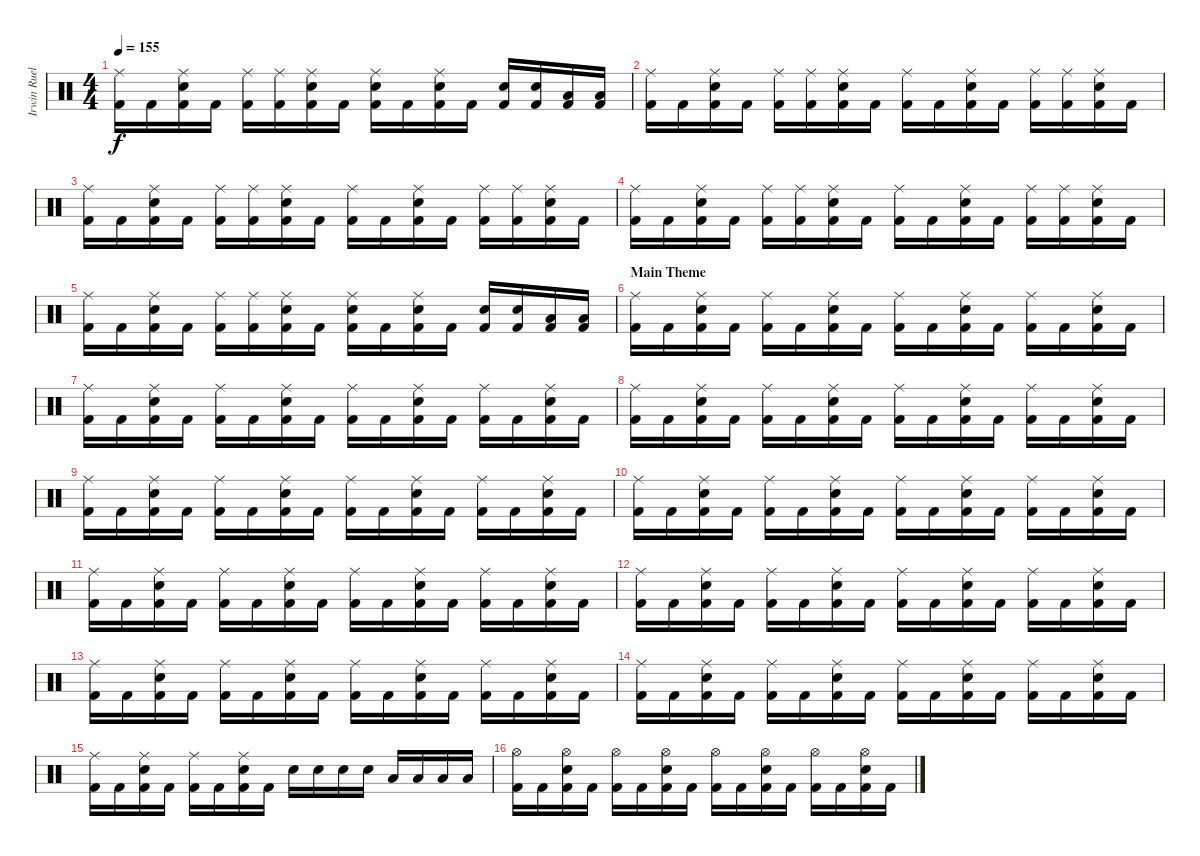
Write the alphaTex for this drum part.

\track ("Irwin Ruelas" "Irwin Ruel") {instrument percussion}
\staff {score}
\articulation defaults
\ts (4 4)
\tempo 155
\clef neutral
\ks c
("Ride (middle)" "Kick (hit) 2").16{dy f} "Kick (hit) 2".16 ("Ride (middle)" "Electric Snare (hit)" "Kick (hit) 2").16 "Kick (hit) 2".16 ("Ride (middle)" "Kick (hit) 2").16 ("Ride (middle)" "Kick (hit) 2").16 ("Ride (middle)" "Electric Snare (hit)" "Kick (hit) 2").16 "Kick (hit) 2".16 ("Ride (middle)" "Electric Snare (hit)" "Kick (hit) 2").16 "Kick (hit) 2".16 ("Ride (middle)" "Electric Snare (hit)" "Kick (hit) 2").16 "Kick (hit) 2".16 ("Electric Snare (hit)" "Kick (hit) 2").16 ("Electric Snare (hit)" "Kick (hit) 2").16 ("Low Tom (hit)" "Kick (hit) 2").16 ("Low Tom (hit)" "Kick (hit) 2").16 |
("Ride (middle)" "Kick (hit) 2").16 "Kick (hit) 2".16 ("Ride (middle)" "Electric Snare (hit)" "Kick (hit) 2").16 "Kick (hit) 2".16 ("Ride (middle)" "Kick (hit) 2").16 ("Ride (middle)" "Kick (hit) 2").16 ("Ride (middle)" "Electric Snare (hit)" "Kick (hit) 2").16 "Kick (hit) 2".16 ("Ride (middle)" "Kick (hit) 2").16 "Kick (hit) 2".16 ("Ride (middle)" "Electric Snare (hit)" "Kick (hit) 2").16 "Kick (hit) 2".16 ("Ride (middle)" "Kick (hit) 2").16 ("Ride (middle)" "Kick (hit) 2").16 ("Ride (middle)" "Electric Snare (hit)" "Kick (hit) 2").16 "Kick (hit) 2".16 |
("Ride (middle)" "Kick (hit) 2").16 "Kick (hit) 2".16 ("Ride (middle)" "Electric Snare (hit)" "Kick (hit) 2").16 "Kick (hit) 2".16 ("Ride (middle)" "Kick (hit) 2").16 ("Ride (middle)" "Kick (hit) 2").16 ("Ride (middle)" "Electric Snare (hit)" "Kick (hit) 2").16 "Kick (hit) 2".16 ("Ride (middle)" "Kick (hit) 2").16 "Kick (hit) 2".16 ("Ride (middle)" "Electric Snare (hit)" "Kick (hit) 2").16 "Kick (hit) 2".16 ("Ride (middle)" "Kick (hit) 2").16 ("Ride (middle)" "Kick (hit) 2").16 ("Ride (middle)" "Electric Snare (hit)" "Kick (hit) 2").16 "Kick (hit) 2".16 |
("Ride (middle)" "Kick (hit) 2").16 "Kick (hit) 2".16 ("Ride (middle)" "Electric Snare (hit)" "Kick (hit) 2").16 "Kick (hit) 2".16 ("Ride (middle)" "Kick (hit) 2").16 ("Ride (middle)" "Kick (hit) 2").16 ("Ride (middle)" "Electric Snare (hit)" "Kick (hit) 2").16 "Kick (hit) 2".16 ("Ride (middle)" "Kick (hit) 2").16 "Kick (hit) 2".16 ("Ride (middle)" "Electric Snare (hit)" "Kick (hit) 2").16 "Kick (hit) 2".16 ("Ride (middle)" "Kick (hit) 2").16 ("Ride (middle)" "Kick (hit) 2").16 ("Ride (middle)" "Electric Snare (hit)" "Kick (hit) 2").16 "Kick (hit) 2".16 |
("Ride (middle)" "Kick (hit) 2").16 "Kick (hit) 2".16 ("Ride (middle)" "Electric Snare (hit)" "Kick (hit) 2").16 "Kick (hit) 2".16 ("Ride (middle)" "Kick (hit) 2").16 ("Ride (middle)" "Kick (hit) 2").16 ("Ride (middle)" "Electric Snare (hit)" "Kick (hit) 2").16 "Kick (hit) 2".16 ("Ride (middle)" "Electric Snare (hit)" "Kick (hit) 2").16 "Kick (hit) 2".16 ("Ride (middle)" "Electric Snare (hit)" "Kick (hit) 2").16 "Kick (hit) 2".16 ("Electric Snare (hit)" "Kick (hit) 2").16 ("Electric Snare (hit)" "Kick (hit) 2").16 ("Low Tom (hit)" "Kick (hit) 2").16 ("Low Tom (hit)" "Kick (hit) 2").16 |
\section ("" "Main Theme")
("Ride (middle)" "Kick (hit) 2").16 "Kick (hit) 2".16 ("Ride (middle)" "Electric Snare (hit)" "Kick (hit) 2").16 "Kick (hit) 2".16 ("Ride (middle)" "Kick (hit) 2").16 "Kick (hit) 2".16 ("Ride (middle)" "Electric Snare (hit)" "Kick (hit) 2").16 "Kick (hit) 2".16 ("Ride (middle)" "Kick (hit) 2").16 "Kick (hit) 2".16 ("Ride (middle)" "Electric Snare (hit)" "Kick (hit) 2").16 "Kick (hit) 2".16 ("Ride (middle)" "Kick (hit) 2").16 "Kick (hit) 2".16 ("Ride (middle)" "Electric Snare (hit)" "Kick (hit) 2").16 "Kick (hit) 2".16 |
("Ride (middle)" "Kick (hit) 2").16 "Kick (hit) 2".16 ("Ride (middle)" "Electric Snare (hit)" "Kick (hit) 2").16 "Kick (hit) 2".16 ("Ride (middle)" "Kick (hit) 2").16 "Kick (hit) 2".16 ("Ride (middle)" "Electric Snare (hit)" "Kick (hit) 2").16 "Kick (hit) 2".16 ("Ride (middle)" "Kick (hit) 2").16 "Kick (hit) 2".16 ("Ride (middle)" "Electric Snare (hit)" "Kick (hit) 2").16 "Kick (hit) 2".16 ("Ride (middle)" "Kick (hit) 2").16 "Kick (hit) 2".16 ("Ride (middle)" "Electric Snare (hit)" "Kick (hit) 2").16 "Kick (hit) 2".16 |
("Ride (middle)" "Kick (hit) 2").16 "Kick (hit) 2".16 ("Ride (middle)" "Electric Snare (hit)" "Kick (hit) 2").16 "Kick (hit) 2".16 ("Ride (middle)" "Kick (hit) 2").16 "Kick (hit) 2".16 ("Ride (middle)" "Electric Snare (hit)" "Kick (hit) 2").16 "Kick (hit) 2".16 ("Ride (middle)" "Kick (hit) 2").16 "Kick (hit) 2".16 ("Ride (middle)" "Electric Snare (hit)" "Kick (hit) 2").16 "Kick (hit) 2".16 ("Ride (middle)" "Kick (hit) 2").16 "Kick (hit) 2".16 ("Ride (middle)" "Electric Snare (hit)" "Kick (hit) 2").16 "Kick (hit) 2".16 |
("Ride (middle)" "Kick (hit) 2").16 "Kick (hit) 2".16 ("Ride (middle)" "Electric Snare (hit)" "Kick (hit) 2").16 "Kick (hit) 2".16 ("Ride (middle)" "Kick (hit) 2").16 "Kick (hit) 2".16 ("Ride (middle)" "Electric Snare (hit)" "Kick (hit) 2").16 "Kick (hit) 2".16 ("Ride (middle)" "Kick (hit) 2").16 "Kick (hit) 2".16 ("Ride (middle)" "Electric Snare (hit)" "Kick (hit) 2").16 "Kick (hit) 2".16 ("Ride (middle)" "Kick (hit) 2").16 "Kick (hit) 2".16 ("Ride (middle)" "Electric Snare (hit)" "Kick (hit) 2").16 "Kick (hit) 2".16 |
("Ride (middle)" "Kick (hit) 2").16 "Kick (hit) 2".16 ("Ride (middle)" "Electric Snare (hit)" "Kick (hit) 2").16 "Kick (hit) 2".16 ("Ride (middle)" "Kick (hit) 2").16 "Kick (hit) 2".16 ("Ride (middle)" "Electric Snare (hit)" "Kick (hit) 2").16 "Kick (hit) 2".16 ("Ride (middle)" "Kick (hit) 2").16 "Kick (hit) 2".16 ("Ride (middle)" "Electric Snare (hit)" "Kick (hit) 2").16 "Kick (hit) 2".16 ("Ride (middle)" "Kick (hit) 2").16 "Kick (hit) 2".16 ("Ride (middle)" "Electric Snare (hit)" "Kick (hit) 2").16 "Kick (hit) 2".16 |
("Ride (middle)" "Kick (hit) 2").16 "Kick (hit) 2".16 ("Ride (middle)" "Electric Snare (hit)" "Kick (hit) 2").16 "Kick (hit) 2".16 ("Ride (middle)" "Kick (hit) 2").16 "Kick (hit) 2".16 ("Ride (middle)" "Electric Snare (hit)" "Kick (hit) 2").16 "Kick (hit) 2".16 ("Ride (middle)" "Kick (hit) 2").16 "Kick (hit) 2".16 ("Ride (middle)" "Electric Snare (hit)" "Kick (hit) 2").16 "Kick (hit) 2".16 ("Ride (middle)" "Kick (hit) 2").16 "Kick (hit) 2".16 ("Ride (middle)" "Electric Snare (hit)" "Kick (hit) 2").16 "Kick (hit) 2".16 |
("Ride (middle)" "Kick (hit) 2").16 "Kick (hit) 2".16 ("Ride (middle)" "Electric Snare (hit)" "Kick (hit) 2").16 "Kick (hit) 2".16 ("Ride (middle)" "Kick (hit) 2").16 "Kick (hit) 2".16 ("Ride (middle)" "Electric Snare (hit)" "Kick (hit) 2").16 "Kick (hit) 2".16 ("Ride (middle)" "Kick (hit) 2").16 "Kick (hit) 2".16 ("Ride (middle)" "Electric Snare (hit)" "Kick (hit) 2").16 "Kick (hit) 2".16 ("Ride (middle)" "Kick (hit) 2").16 "Kick (hit) 2".16 ("Ride (middle)" "Electric Snare (hit)" "Kick (hit) 2").16 "Kick (hit) 2".16 |
("Ride (middle)" "Kick (hit) 2").16 "Kick (hit) 2".16 ("Ride (middle)" "Electric Snare (hit)" "Kick (hit) 2").16 "Kick (hit) 2".16 ("Ride (middle)" "Kick (hit) 2").16 "Kick (hit) 2".16 ("Ride (middle)" "Electric Snare (hit)" "Kick (hit) 2").16 "Kick (hit) 2".16 ("Ride (middle)" "Kick (hit) 2").16 "Kick (hit) 2".16 ("Ride (middle)" "Electric Snare (hit)" "Kick (hit) 2").16 "Kick (hit) 2".16 ("Ride (middle)" "Kick (hit) 2").16 "Kick (hit) 2".16 ("Ride (middle)" "Electric Snare (hit)" "Kick (hit) 2").16 "Kick (hit) 2".16 |
("Ride (middle)" "Kick (hit) 2").16 "Kick (hit) 2".16 ("Ride (middle)" "Electric Snare (hit)" "Kick (hit) 2").16 "Kick (hit) 2".16 ("Ride (middle)" "Kick (hit) 2").16 "Kick (hit) 2".16 ("Ride (middle)" "Electric Snare (hit)" "Kick (hit) 2").16 "Kick (hit) 2".16 ("Ride (middle)" "Kick (hit) 2").16 "Kick (hit) 2".16 ("Ride (middle)" "Electric Snare (hit)" "Kick (hit) 2").16 "Kick (hit) 2".16 ("Ride (middle)" "Kick (hit) 2").16 "Kick (hit) 2".16 ("Ride (middle)" "Electric Snare (hit)" "Kick (hit) 2").16 "Kick (hit) 2".16 |
("Ride (middle)" "Kick (hit) 2").16 "Kick (hit) 2".16 ("Ride (middle)" "Electric Snare (hit)" "Kick (hit) 2").16 "Kick (hit) 2".16 ("Ride (middle)" "Kick (hit) 2").16 "Kick (hit) 2".16 ("Ride (middle)" "Electric Snare (hit)" "Kick (hit) 2").16 "Kick (hit) 2".16 "Electric Snare (hit)".16 "Electric Snare (hit)".16 "Electric Snare (hit)".16 "Electric Snare (hit)".16 "Low Tom (hit)".16 "Low Tom (hit)".16 "Low Tom (hit)".16 "Low Tom (hit)".16 |
("Hi-Hat (open)" "Kick (hit) 2").16 "Kick (hit) 2".16 ("Hi-Hat (open)" "Electric Snare (hit)" "Kick (hit) 2").16 "Kick (hit) 2".16 ("Hi-Hat (open)" "Kick (hit) 2").16 "Kick (hit) 2".16 ("Hi-Hat (open)" "Electric Snare (hit)" "Kick (hit) 2").16 "Kick (hit) 2".16 ("Hi-Hat (open)" "Kick (hit) 2").16 "Kick (hit) 2".16 ("Hi-Hat (open)" "Electric Snare (hit)" "Kick (hit) 2").16 "Kick (hit) 2".16 ("Hi-Hat (open)" "Kick (hit) 2").16 "Kick (hit) 2".16 ("Hi-Hat (open)" "Electric Snare (hit)" "Kick (hit) 2").16 "Kick (hit) 2".16
